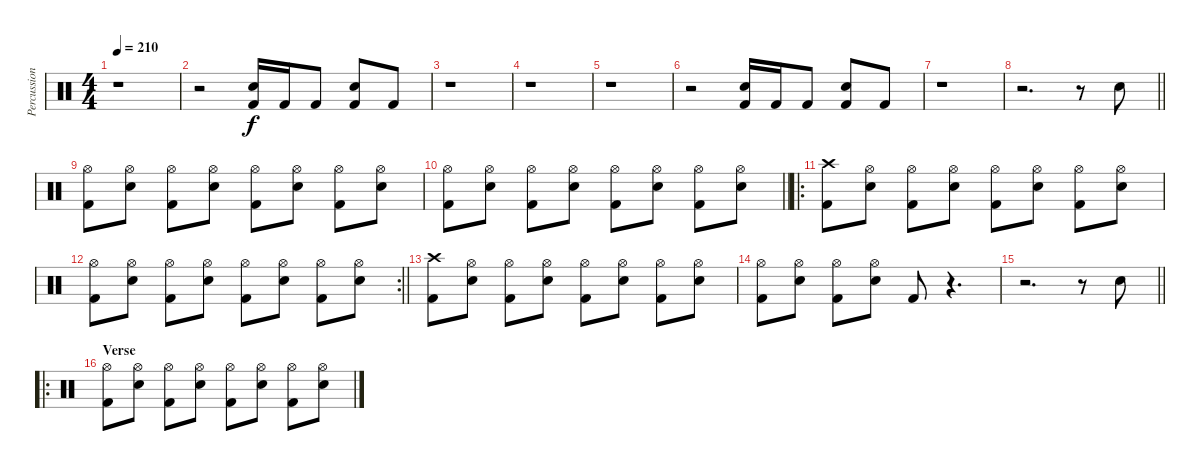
\track ("Percussion" "Percussion") {instrument percussion}
\staff {score}
\articulation defaults
\ts (4 4)
\tempo 210
\clef neutral
\ks c
r.1{dy f} |
r.2 ("Electric Snare (hit)" "Kick (hit) 2").16 "Kick (hit) 2".16 "Kick (hit) 2".8 ("Electric Snare (hit)" "Kick (hit) 2").8 "Kick (hit) 2".8 |
r.1 |
r.1 |
r.1 |
r.2 ("Electric Snare (hit)" "Kick (hit) 2").16 "Kick (hit) 2".16 "Kick (hit) 2".8 ("Electric Snare (hit)" "Kick (hit) 2").8 "Kick (hit) 2".8 |
r.1 |
\barLineRight lightlight
r.2{d} r.8 "Electric Snare (hit)".8 |
("Hi-Hat (open)" "Kick (hit) 2").8 ("Hi-Hat (open)" "Electric Snare (hit)").8 ("Hi-Hat (open)" "Kick (hit) 2").8 ("Hi-Hat (open)" "Electric Snare (hit)").8 ("Hi-Hat (open)" "Kick (hit) 2").8 ("Hi-Hat (open)" "Electric Snare (hit)").8 ("Hi-Hat (open)" "Kick (hit) 2").8 ("Hi-Hat (open)" "Electric Snare (hit)").8 |
\barLineRight lightlight
("Hi-Hat (open)" "Kick (hit) 2").8 ("Hi-Hat (open)" "Electric Snare (hit)").8 ("Hi-Hat (open)" "Kick (hit) 2").8 ("Hi-Hat (open)" "Electric Snare (hit)").8 ("Hi-Hat (open)" "Kick (hit) 2").8 ("Hi-Hat (open)" "Electric Snare (hit)").8 ("Hi-Hat (open)" "Kick (hit) 2").8 ("Hi-Hat (open)" "Electric Snare (hit)").8 |
\ro
("Crash high (hit)" "Kick (hit) 2").8 ("Hi-Hat (open)" "Electric Snare (hit)").8 ("Hi-Hat (open)" "Kick (hit) 2").8 ("Hi-Hat (open)" "Electric Snare (hit)").8 ("Hi-Hat (open)" "Kick (hit) 2").8 ("Hi-Hat (open)" "Electric Snare (hit)").8 ("Hi-Hat (open)" "Kick (hit) 2").8 ("Hi-Hat (open)" "Electric Snare (hit)").8 |
\rc 2
\barLineRight lightlight
("Hi-Hat (open)" "Kick (hit) 2").8 ("Hi-Hat (open)" "Electric Snare (hit)").8 ("Hi-Hat (open)" "Kick (hit) 2").8 ("Hi-Hat (open)" "Electric Snare (hit)").8 ("Hi-Hat (open)" "Kick (hit) 2").8 ("Hi-Hat (open)" "Electric Snare (hit)").8 ("Hi-Hat (open)" "Kick (hit) 2").8 ("Hi-Hat (open)" "Electric Snare (hit)").8 |
("Crash high (hit)" "Kick (hit) 2").8 ("Hi-Hat (open)" "Electric Snare (hit)").8 ("Hi-Hat (open)" "Kick (hit) 2").8 ("Hi-Hat (open)" "Electric Snare (hit)").8 ("Hi-Hat (open)" "Kick (hit) 2").8 ("Hi-Hat (open)" "Electric Snare (hit)").8 ("Hi-Hat (open)" "Kick (hit) 2").8 ("Hi-Hat (open)" "Electric Snare (hit)").8 |
("Hi-Hat (open)" "Kick (hit) 2").8 ("Hi-Hat (open)" "Electric Snare (hit)").8 ("Hi-Hat (open)" "Kick (hit) 2").8 ("Hi-Hat (open)" "Electric Snare (hit)").8 "Kick (hit) 2".8 r.4{d} |
\barLineRight lightlight
r.2{d} r.8 "Electric Snare (hit)".8 |
\ro
\section ("" "Verse")
("Hi-Hat (open)" "Kick (hit) 2").8 ("Hi-Hat (open)" "Electric Snare (hit)").8 ("Hi-Hat (open)" "Kick (hit) 2").8 ("Hi-Hat (open)" "Electric Snare (hit)").8 ("Hi-Hat (open)" "Kick (hit) 2").8 ("Hi-Hat (open)" "Electric Snare (hit)").8 ("Hi-Hat (open)" "Kick (hit) 2").8 ("Hi-Hat (open)" "Electric Snare (hit)").8
